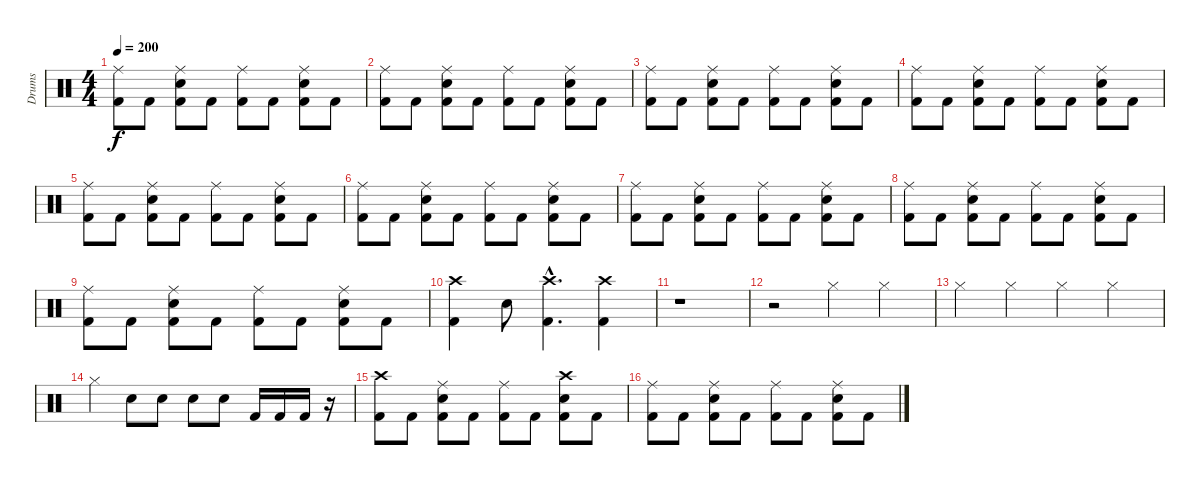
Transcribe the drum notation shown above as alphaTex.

\track ("Drums" "Drums") {instrument percussion}
\staff {score}
\articulation defaults
\ts (4 4)
\tempo 200
\clef neutral
\ks c
("Ride (middle)" "Kick (hit) 2").8{dy f} "Kick (hit) 2".8 ("Ride (middle)" "Snare (hit) 2" "Kick (hit) 2").8 "Kick (hit) 2".8 ("Ride (middle)" "Kick (hit) 2").8 "Kick (hit) 2".8 ("Ride (middle)" "Snare (hit) 2" "Kick (hit) 2").8 "Kick (hit) 2".8 |
("Ride (middle)" "Kick (hit) 2").8 "Kick (hit) 2".8 ("Ride (middle)" "Snare (hit) 2" "Kick (hit) 2").8 "Kick (hit) 2".8 ("Ride (middle)" "Kick (hit) 2").8 "Kick (hit) 2".8 ("Ride (middle)" "Snare (hit) 2" "Kick (hit) 2").8 "Kick (hit) 2".8 |
("Ride (middle)" "Kick (hit) 2").8 "Kick (hit) 2".8 ("Ride (middle)" "Snare (hit) 2" "Kick (hit) 2").8 "Kick (hit) 2".8 ("Ride (middle)" "Kick (hit) 2").8 "Kick (hit) 2".8 ("Ride (middle)" "Snare (hit) 2" "Kick (hit) 2").8 "Kick (hit) 2".8 |
("Ride (middle)" "Kick (hit) 2").8 "Kick (hit) 2".8 ("Ride (middle)" "Snare (hit) 2" "Kick (hit) 2").8 "Kick (hit) 2".8 ("Ride (middle)" "Kick (hit) 2").8 "Kick (hit) 2".8 ("Ride (middle)" "Snare (hit) 2" "Kick (hit) 2").8 "Kick (hit) 2".8 |
("Ride (middle)" "Kick (hit) 2").8 "Kick (hit) 2".8 ("Ride (middle)" "Snare (hit) 2" "Kick (hit) 2").8 "Kick (hit) 2".8 ("Ride (middle)" "Kick (hit) 2").8 "Kick (hit) 2".8 ("Ride (middle)" "Snare (hit) 2" "Kick (hit) 2").8 "Kick (hit) 2".8 |
("Ride (middle)" "Kick (hit) 2").8 "Kick (hit) 2".8 ("Ride (middle)" "Snare (hit) 2" "Kick (hit) 2").8 "Kick (hit) 2".8 ("Ride (middle)" "Kick (hit) 2").8 "Kick (hit) 2".8 ("Ride (middle)" "Snare (hit) 2" "Kick (hit) 2").8 "Kick (hit) 2".8 |
("Ride (middle)" "Kick (hit) 2").8 "Kick (hit) 2".8 ("Ride (middle)" "Snare (hit) 2" "Kick (hit) 2").8 "Kick (hit) 2".8 ("Ride (middle)" "Kick (hit) 2").8 "Kick (hit) 2".8 ("Ride (middle)" "Snare (hit) 2" "Kick (hit) 2").8 "Kick (hit) 2".8 |
("Ride (middle)" "Kick (hit) 2").8 "Kick (hit) 2".8 ("Ride (middle)" "Snare (hit) 2" "Kick (hit) 2").8 "Kick (hit) 2".8 ("Ride (middle)" "Kick (hit) 2").8 "Kick (hit) 2".8 ("Ride (middle)" "Snare (hit) 2" "Kick (hit) 2").8 "Kick (hit) 2".8 |
("Ride (middle)" "Kick (hit) 2").8 "Kick (hit) 2".8 ("Ride (middle)" "Snare (hit) 2" "Kick (hit) 2").8 "Kick (hit) 2".8 ("Ride (middle)" "Kick (hit) 2").8 "Kick (hit) 2".8 ("Ride (middle)" "Snare (hit) 2" "Kick (hit) 2").8 "Kick (hit) 2".8 |
("Crash high (hit)" "Kick (hit) 2").4 "Snare (hit) 2".8 ("Crash high (hit)"{hac} "Kick (hit) 2"{hac}).4{d} ("Crash high (hit)" "Kick (hit) 2").4 |
r.1 |
r.2 "Hi-Hat (closed)".4 "Hi-Hat (closed)".4 |
"Hi-Hat (closed)".4 "Hi-Hat (closed)".4 "Hi-Hat (closed)".4 "Hi-Hat (closed)".4 |
"Hi-Hat (closed)".4 "Snare (hit) 2".8 "Snare (hit) 2".8 "Snare (hit) 2".8 "Snare (hit) 2".8 "Kick (hit) 2".16 "Kick (hit) 2".16 "Kick (hit) 2".16 r.16 |
("Crash high (hit)" "Kick (hit) 2").8 "Kick (hit) 2".8 ("Ride (middle)" "Snare (hit) 2" "Kick (hit) 2").8 "Kick (hit) 2".8 ("Ride (middle)" "Kick (hit) 2").8 "Kick (hit) 2".8 ("Crash high (hit)" "Snare (hit) 2" "Kick (hit) 2").8 "Kick (hit) 2".8 |
("Ride (middle)" "Kick (hit) 2").8 "Kick (hit) 2".8 ("Ride (middle)" "Snare (hit) 2" "Kick (hit) 2").8 "Kick (hit) 2".8 ("Ride (middle)" "Kick (hit) 2").8 "Kick (hit) 2".8 ("Ride (middle)" "Snare (hit) 2" "Kick (hit) 2").8 "Kick (hit) 2".8
